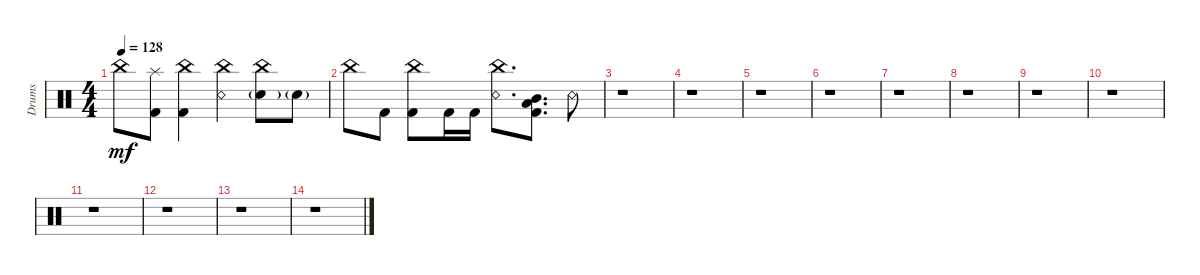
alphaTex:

\track ("Drums" "Drums") {instrument percussion}
\staff {score}
\articulation defaults
\ts (4 4)
\tempo 128
\clef neutral
\ks c "China (hit)".8{dy mf}
("Splash (hit)" "Kick (hit) 2").8 ("China (hit)" "Kick (hit) 2").4 ("China (hit)" "Snare (rim shot)").4 ("China (hit)" "Snare (hit) 2"{g}).8 "Snare (hit) 2"{g}.8 |
"China (hit)".8 "Kick (hit) 2".8 ("China (hit)" "Kick (hit) 2").8 "Kick (hit) 2".16 "Kick (hit) 2".16 ("China (hit)" "Snare (rim shot)").8{d} ("Mid Tom (hit)" "Low Tom (hit)" "Kick (hit) 2").8{d} "Snare (rim shot)".8 |
r.1 |
r.1 |
r.1 |
r.1 |
r.1 |
r.1 |
r.1 |
r.1 |
r.1 |
r.1 |
r.1 |
r.1
